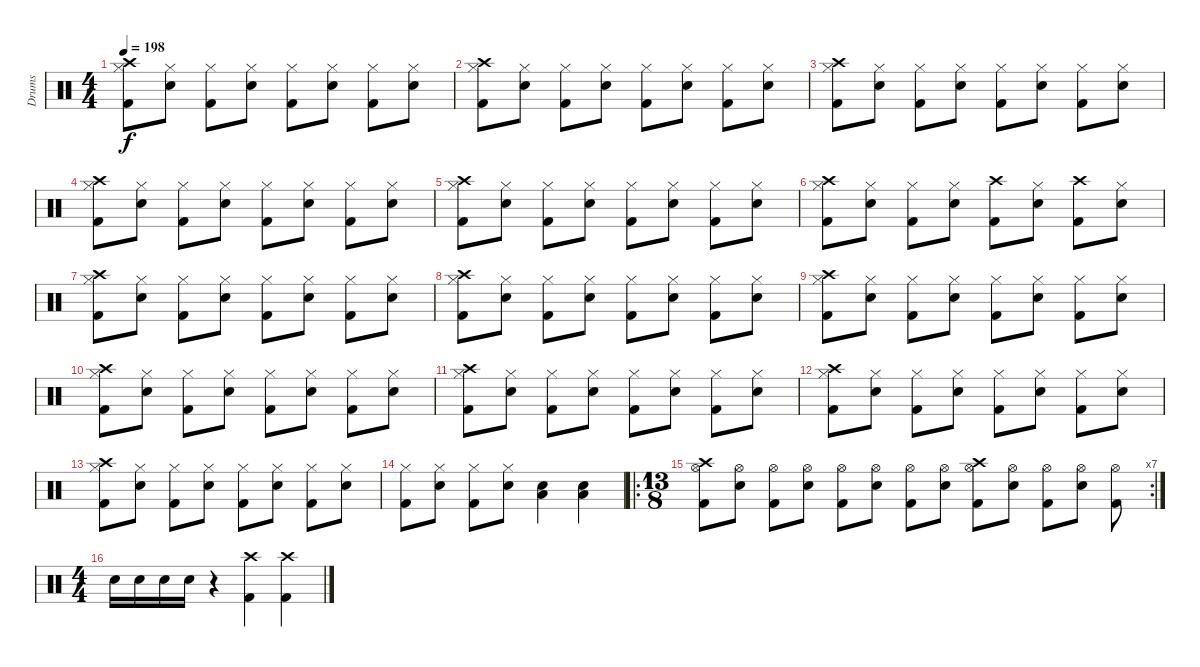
\track ("Drums" "Drums") {instrument percussion}
\staff {score}
\articulation defaults
\ts (4 4)
\tempo 198
\clef neutral
\ks c
("Crash high (hit)" "Hi-Hat (closed)" "Kick (hit) 2").8{dy f} ("Hi-Hat (closed)" "Snare (hit) 2").8 ("Hi-Hat (closed)" "Kick (hit) 2").8 ("Hi-Hat (closed)" "Snare (hit) 2").8 ("Hi-Hat (closed)" "Kick (hit) 2").8 ("Hi-Hat (closed)" "Snare (hit) 2").8 ("Hi-Hat (closed)" "Kick (hit) 2").8 ("Hi-Hat (closed)" "Snare (hit) 2").8 |
("Crash high (hit)" "Hi-Hat (closed)" "Kick (hit) 2").8 ("Hi-Hat (closed)" "Snare (hit) 2").8 ("Hi-Hat (closed)" "Kick (hit) 2").8 ("Hi-Hat (closed)" "Snare (hit) 2").8 ("Hi-Hat (closed)" "Kick (hit) 2").8 ("Hi-Hat (closed)" "Snare (hit) 2").8 ("Hi-Hat (closed)" "Kick (hit) 2").8 ("Hi-Hat (closed)" "Snare (hit) 2").8 |
("Crash high (hit)" "Hi-Hat (closed)" "Kick (hit) 2").8 ("Hi-Hat (closed)" "Snare (hit) 2").8 ("Hi-Hat (closed)" "Kick (hit) 2").8 ("Hi-Hat (closed)" "Snare (hit) 2").8 ("Hi-Hat (closed)" "Kick (hit) 2").8 ("Hi-Hat (closed)" "Snare (hit) 2").8 ("Hi-Hat (closed)" "Kick (hit) 2").8 ("Hi-Hat (closed)" "Snare (hit) 2").8 |
("Crash high (hit)" "Hi-Hat (closed)" "Kick (hit) 2").8 ("Hi-Hat (closed)" "Snare (hit) 2").8 ("Hi-Hat (closed)" "Kick (hit) 2").8 ("Hi-Hat (closed)" "Snare (hit) 2").8 ("Hi-Hat (closed)" "Kick (hit) 2").8 ("Hi-Hat (closed)" "Snare (hit) 2").8 ("Hi-Hat (closed)" "Kick (hit) 2").8 ("Hi-Hat (closed)" "Snare (hit) 2").8 |
("Crash high (hit)" "Hi-Hat (closed)" "Kick (hit) 2").8 ("Hi-Hat (closed)" "Snare (hit) 2").8 ("Hi-Hat (closed)" "Kick (hit) 2").8 ("Hi-Hat (closed)" "Snare (hit) 2").8 ("Hi-Hat (closed)" "Kick (hit) 2").8 ("Hi-Hat (closed)" "Snare (hit) 2").8 ("Hi-Hat (closed)" "Kick (hit) 2").8 ("Hi-Hat (closed)" "Snare (hit) 2").8 |
("Crash high (hit)" "Hi-Hat (closed)" "Kick (hit) 2").8 ("Hi-Hat (closed)" "Snare (hit) 2").8 ("Hi-Hat (closed)" "Kick (hit) 2").8 ("Hi-Hat (closed)" "Snare (hit) 2").8 ("Crash high (hit)" "Kick (hit) 2").8 ("Hi-Hat (closed)" "Snare (hit) 2").8 ("Crash high (hit)" "Kick (hit) 2").8 ("Hi-Hat (closed)" "Snare (hit) 2").8 |
("Crash high (hit)" "Hi-Hat (closed)" "Kick (hit) 2").8 ("Hi-Hat (closed)" "Snare (hit) 2").8 ("Hi-Hat (closed)" "Kick (hit) 2").8 ("Hi-Hat (closed)" "Snare (hit) 2").8 ("Hi-Hat (closed)" "Kick (hit) 2").8 ("Hi-Hat (closed)" "Snare (hit) 2").8 ("Hi-Hat (closed)" "Kick (hit) 2").8 ("Hi-Hat (closed)" "Snare (hit) 2").8 |
("Crash high (hit)" "Hi-Hat (closed)" "Kick (hit) 2").8 ("Hi-Hat (closed)" "Snare (hit) 2").8 ("Hi-Hat (closed)" "Kick (hit) 2").8 ("Hi-Hat (closed)" "Snare (hit) 2").8 ("Hi-Hat (closed)" "Kick (hit) 2").8 ("Hi-Hat (closed)" "Snare (hit) 2").8 ("Hi-Hat (closed)" "Kick (hit) 2").8 ("Hi-Hat (closed)" "Snare (hit) 2").8 |
("Crash high (hit)" "Hi-Hat (closed)" "Kick (hit) 2").8 ("Hi-Hat (closed)" "Snare (hit) 2").8 ("Hi-Hat (closed)" "Kick (hit) 2").8 ("Hi-Hat (closed)" "Snare (hit) 2").8 ("Hi-Hat (closed)" "Kick (hit) 2").8 ("Hi-Hat (closed)" "Snare (hit) 2").8 ("Hi-Hat (closed)" "Kick (hit) 2").8 ("Hi-Hat (closed)" "Snare (hit) 2").8 |
("Crash high (hit)" "Hi-Hat (closed)" "Kick (hit) 2").8 ("Hi-Hat (closed)" "Snare (hit) 2").8 ("Hi-Hat (closed)" "Kick (hit) 2").8 ("Hi-Hat (closed)" "Snare (hit) 2").8 ("Hi-Hat (closed)" "Kick (hit) 2").8 ("Hi-Hat (closed)" "Snare (hit) 2").8 ("Hi-Hat (closed)" "Kick (hit) 2").8 ("Hi-Hat (closed)" "Snare (hit) 2").8 |
("Crash high (hit)" "Hi-Hat (closed)" "Kick (hit) 2").8 ("Hi-Hat (closed)" "Snare (hit) 2").8 ("Hi-Hat (closed)" "Kick (hit) 2").8 ("Hi-Hat (closed)" "Snare (hit) 2").8 ("Hi-Hat (closed)" "Kick (hit) 2").8 ("Hi-Hat (closed)" "Snare (hit) 2").8 ("Hi-Hat (closed)" "Kick (hit) 2").8 ("Hi-Hat (closed)" "Snare (hit) 2").8 |
("Crash high (hit)" "Hi-Hat (closed)" "Kick (hit) 2").8 ("Hi-Hat (closed)" "Snare (hit) 2").8 ("Hi-Hat (closed)" "Kick (hit) 2").8 ("Hi-Hat (closed)" "Snare (hit) 2").8 ("Hi-Hat (closed)" "Kick (hit) 2").8 ("Hi-Hat (closed)" "Snare (hit) 2").8 ("Hi-Hat (closed)" "Kick (hit) 2").8 ("Hi-Hat (closed)" "Snare (hit) 2").8 |
("Crash high (hit)" "Hi-Hat (closed)" "Kick (hit) 2").8 ("Hi-Hat (closed)" "Snare (hit) 2").8 ("Hi-Hat (closed)" "Kick (hit) 2").8 ("Hi-Hat (closed)" "Snare (hit) 2").8 ("Hi-Hat (closed)" "Kick (hit) 2").8 ("Hi-Hat (closed)" "Snare (hit) 2").8 ("Hi-Hat (closed)" "Kick (hit) 2").8 ("Hi-Hat (closed)" "Snare (hit) 2").8 |
("Hi-Hat (closed)" "Kick (hit) 2").8 ("Hi-Hat (closed)" "Snare (hit) 2").8 ("Hi-Hat (closed)" "Kick (hit) 2").8 ("Hi-Hat (closed)" "Snare (hit) 2").8 ("Low Tom (hit)" "Snare (hit) 2").4 ("Low Tom (hit)" "Snare (hit) 2").4 |
\ro
\rc 7
\ts (13 8)
("Crash high (hit)" "Hi-Hat (open)" "Kick (hit) 2").8 ("Hi-Hat (open)" "Snare (hit) 2").8 ("Hi-Hat (open)" "Kick (hit) 2").8 ("Hi-Hat (open)" "Snare (hit) 2").8 ("Hi-Hat (open)" "Kick (hit) 2").8 ("Hi-Hat (open)" "Snare (hit) 2").8 ("Hi-Hat (open)" "Kick (hit) 2").8 ("Hi-Hat (open)" "Snare (hit) 2").8 ("Crash high (hit)" "Hi-Hat (open)" "Kick (hit) 2").8 ("Hi-Hat (open)" "Snare (hit) 2").8 ("Hi-Hat (open)" "Kick (hit) 2").8 ("Hi-Hat (open)" "Snare (hit) 2").8 ("Hi-Hat (open)" "Kick (hit) 2").8 |
\ts (4 4)
"Snare (hit) 2".16 "Snare (hit) 2".16 "Snare (hit) 2".16 "Snare (hit) 2".16 r.4 ("Crash high (hit)" "Kick (hit) 2").4 ("Crash high (hit)" "Kick (hit) 2").4
